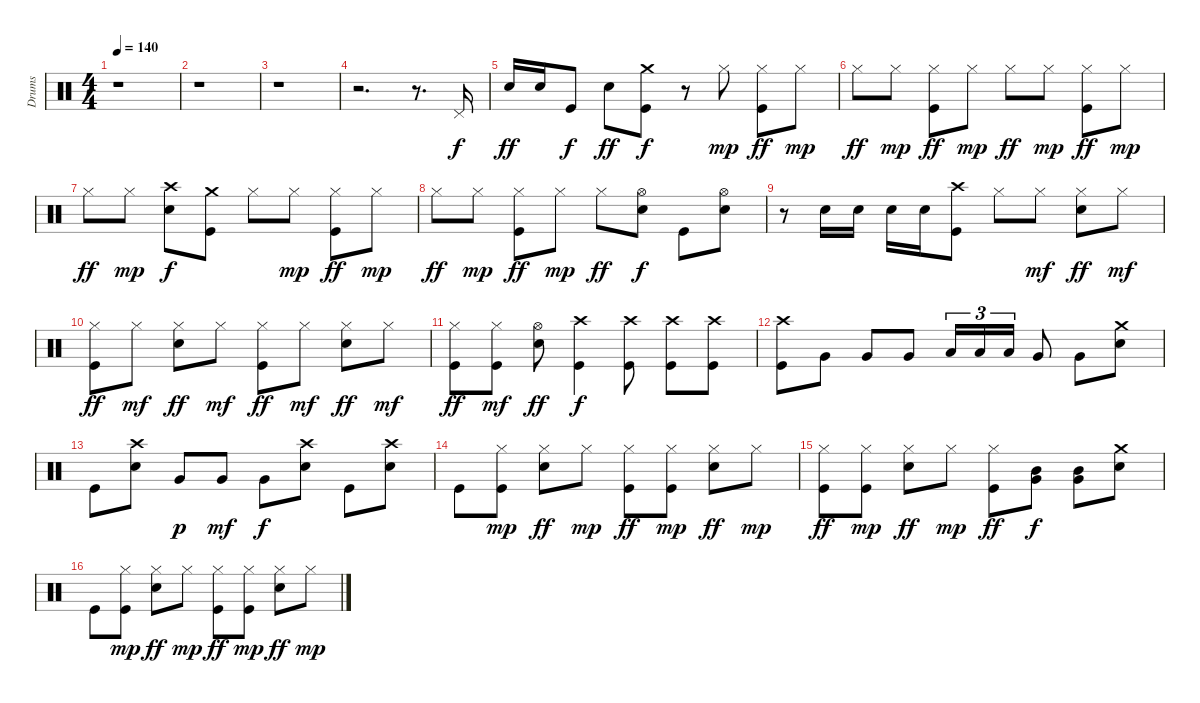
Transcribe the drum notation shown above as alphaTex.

\track ("Drums" "Drums") {instrument percussion}
\staff {score}
\articulation defaults
\ts (4 4)
\tempo 140
\clef neutral
\ks c
r.1{dy f} |
r.1 |
r.1 |
r.2{d} r.8{d} "Pedal Hi-Hat (hit)".16 |
"Snare (hit) 2".16{dy ff} "Snare (hit) 2".16 "Kick (hit)".8{dy f} "Snare (hit) 2".8{dy ff} ("Crash medium (hit)" "Kick (hit)").8{dy f} r.8 "Hi-Hat (closed)".8{dy mp} ("Hi-Hat (closed)" "Kick (hit)").8{dy ff} "Hi-Hat (closed)".8{dy mp} |
"Hi-Hat (closed)".8{dy ff} "Hi-Hat (closed)".8{dy mp} ("Hi-Hat (closed)" "Kick (hit)").8{dy ff} "Hi-Hat (closed)".8{dy mp} "Hi-Hat (closed)".8{dy ff} "Hi-Hat (closed)".8{dy mp} ("Hi-Hat (closed)" "Kick (hit)").8{dy ff} "Hi-Hat (closed)".8{dy mp} |
"Hi-Hat (closed)".8{dy ff} "Hi-Hat (closed)".8{dy mp} ("Crash high (hit)" "Snare (hit) 2").8{dy f} ("Crash medium (hit)" "Kick (hit)").8 "Hi-Hat (closed)".8 "Hi-Hat (closed)".8{dy mp} ("Hi-Hat (closed)" "Kick (hit)").8{dy ff} "Hi-Hat (closed)".8{dy mp} |
"Hi-Hat (closed)".8{dy ff} "Hi-Hat (closed)".8{dy mp} ("Hi-Hat (closed)" "Kick (hit)").8{dy ff} "Hi-Hat (closed)".8{dy mp} "Hi-Hat (closed)".8{dy ff} ("Hi-Hat (open)" "Snare (hit) 2").8{dy f} "Kick (hit)".8 ("Hi-Hat (open)" "Snare (hit) 2").8 |
r.8 "Snare (hit) 2".16 "Snare (hit) 2".16 "Snare (hit) 2".16 "Snare (hit) 2".16 ("Crash high (hit)" "Kick (hit)").8 "Hi-Hat (closed)".8 "Hi-Hat (closed)".8{dy mf} ("Hi-Hat (closed)" "Snare (hit) 2").8{dy ff} "Hi-Hat (closed)".8{dy mf} |
("Hi-Hat (closed)" "Kick (hit)").8{dy ff} "Hi-Hat (closed)".8{dy mf} ("Hi-Hat (closed)" "Snare (hit) 2").8{dy ff} "Hi-Hat (closed)".8{dy mf} ("Hi-Hat (closed)" "Kick (hit)").8{dy ff} "Hi-Hat (closed)".8{dy mf} ("Hi-Hat (closed)" "Snare (hit) 2").8{dy ff} "Hi-Hat (closed)".8{dy mf} |
("Hi-Hat (closed)" "Kick (hit)").8{dy ff} ("Hi-Hat (closed)" "Kick (hit)").8{dy mf} ("Hi-Hat (open)" "Snare (hit) 2").8{dy ff} ("Crash high (hit)" "Kick (hit)").4{dy f} ("Crash high (hit)" "Kick (hit)").8 ("Crash high (hit)" "Kick (hit)").8 ("Crash high (hit)" "Kick (hit)").8 |
("Crash high (hit)" "Kick (hit)").8 "Very Low Tom (hit)".8 "Very Low Tom (hit)".8 "Very Low Tom (hit)".8 "Low Tom (hit)".16{tu (3 2)} "Low Tom (hit)".16{tu (3 2)} "Low Tom (hit)".16{tu (3 2)} "Very Low Tom (hit)".8 "Very Low Tom (hit)".8 ("Crash medium (hit)" "Snare (hit) 2").8 |
"Kick (hit)".8 ("Crash high (hit)" "Snare (hit) 2").8 "Very Low Tom (hit)".8{dy p} "Very Low Tom (hit)".8{dy mf} "Very Low Tom (hit)".8{dy f} ("Crash high (hit)" "Snare (hit) 2").8 "Kick (hit)".8 ("Crash high (hit)" "Snare (hit) 2").8 |
"Kick (hit)".8 ("Hi-Hat (closed)" "Kick (hit)").8{dy mp} ("Hi-Hat (closed)" "Snare (hit) 2").8{dy ff} "Hi-Hat (closed)".8{dy mp} ("Hi-Hat (closed)" "Kick (hit)").8{dy ff} ("Hi-Hat (closed)" "Kick (hit)").8{dy mp} ("Hi-Hat (closed)" "Snare (hit) 2").8{dy ff} "Hi-Hat (closed)".8{dy mp} |
("Hi-Hat (closed)" "Kick (hit)").8{dy ff} ("Hi-Hat (closed)" "Kick (hit)").8{dy mp} ("Hi-Hat (closed)" "Snare (hit) 2").8{dy ff} "Hi-Hat (closed)".8{dy mp} ("Hi-Hat (closed)" "Kick (hit)").8{dy ff} ("Mid Tom (hit)" "Very Low Tom (hit)").8{dy f} ("Mid Tom (hit)" "Very Low Tom (hit)").8 ("Crash medium (hit)" "Snare (hit) 2").8 |
"Kick (hit)".8 ("Hi-Hat (closed)" "Kick (hit)").8{dy mp} ("Hi-Hat (closed)" "Snare (hit) 2").8{dy ff} "Hi-Hat (closed)".8{dy mp} ("Hi-Hat (closed)" "Kick (hit)").8{dy ff} ("Hi-Hat (closed)" "Kick (hit)").8{dy mp} ("Hi-Hat (closed)" "Snare (hit) 2").8{dy ff} "Hi-Hat (closed)".8{dy mp}
